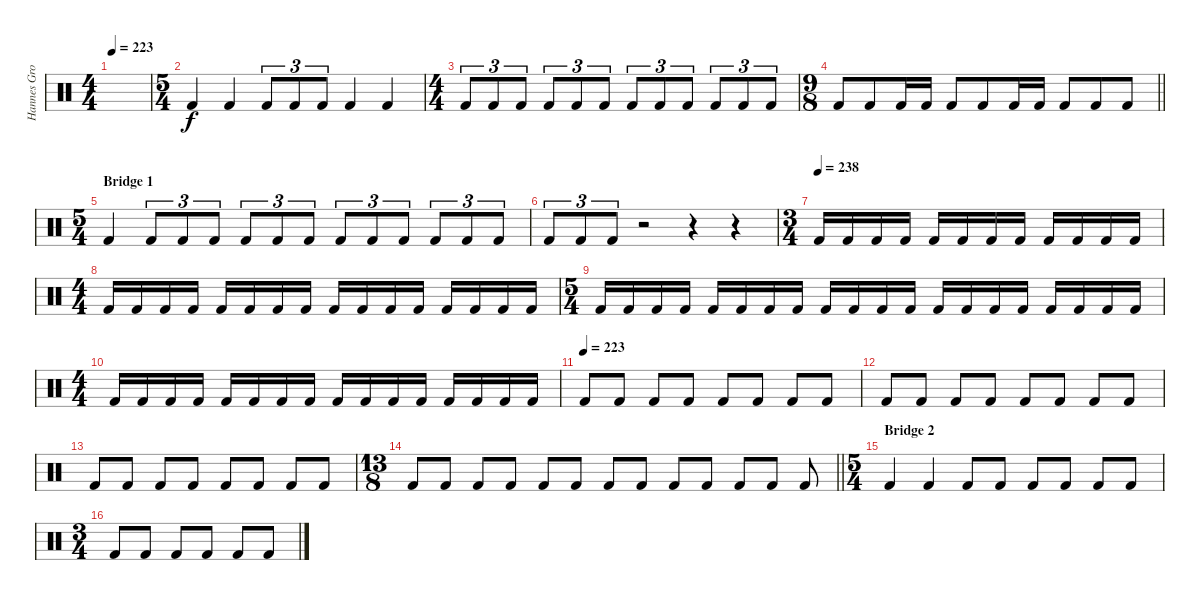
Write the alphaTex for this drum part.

\track ("Hannes Grossmann" "Hannes Gro") {instrument percussion}
\staff {score}
\articulation defaults
\ts (4 4)
\tempo 223
\clef neutral
\ks c
|
\ts (5 4)
"Kick (hit) 2".4 "Kick (hit) 2".4 "Kick (hit) 2".8{tu (3 2)} "Kick (hit) 2".8{tu (3 2)} "Kick (hit) 2".8{tu (3 2)} "Kick (hit) 2".4 "Kick (hit) 2".4 |
\ts (4 4)
"Kick (hit) 2".8{tu (3 2)} "Kick (hit) 2".8{tu (3 2)} "Kick (hit) 2".8{tu (3 2)} "Kick (hit) 2".8{tu (3 2)} "Kick (hit) 2".8{tu (3 2)} "Kick (hit) 2".8{tu (3 2)} "Kick (hit) 2".8{tu (3 2)} "Kick (hit) 2".8{tu (3 2)} "Kick (hit) 2".8{tu (3 2)} "Kick (hit) 2".8{tu (3 2)} "Kick (hit) 2".8{tu (3 2)} "Kick (hit) 2".8{tu (3 2)} |
\ts (9 8)
\barLineRight lightlight "Kick (hit) 2".8 "Kick (hit) 2".8 "Kick (hit) 2".16 "Kick (hit) 2".16 "Kick (hit) 2".8 "Kick (hit) 2".8 "Kick (hit) 2".16 "Kick (hit) 2".16 "Kick (hit) 2".8 "Kick (hit) 2".8 "Kick (hit) 2".8
|
\ts (5 4)
\section ("" "Bridge 1")
"Kick (hit) 2".4 "Kick (hit) 2".8{tu (3 2)} "Kick (hit) 2".8{tu (3 2)} "Kick (hit) 2".8{tu (3 2)} "Kick (hit) 2".8{tu (3 2)} "Kick (hit) 2".8{tu (3 2)} "Kick (hit) 2".8{tu (3 2)} "Kick (hit) 2".8{tu (3 2)} "Kick (hit) 2".8{tu (3 2)} "Kick (hit) 2".8{tu (3 2)} "Kick (hit) 2".8{tu (3 2)} "Kick (hit) 2".8{tu (3 2)} "Kick (hit) 2".8{tu (3 2)} |
"Kick (hit) 2".8{tu (3 2)} "Kick (hit) 2".8{tu (3 2)} "Kick (hit) 2".8{tu (3 2)} r.2 r.4 r.4 |
\ts (3 4)
\tempo (238)
"Kick (hit) 2".16 "Kick (hit) 2".16 "Kick (hit) 2".16 "Kick (hit) 2".16 "Kick (hit) 2".16 "Kick (hit) 2".16 "Kick (hit) 2".16 "Kick (hit) 2".16 "Kick (hit) 2".16 "Kick (hit) 2".16 "Kick (hit) 2".16 "Kick (hit) 2".16 |
\ts (4 4)
"Kick (hit) 2".16 "Kick (hit) 2".16 "Kick (hit) 2".16 "Kick (hit) 2".16 "Kick (hit) 2".16 "Kick (hit) 2".16 "Kick (hit) 2".16 "Kick (hit) 2".16 "Kick (hit) 2".16 "Kick (hit) 2".16 "Kick (hit) 2".16 "Kick (hit) 2".16 "Kick (hit) 2".16 "Kick (hit) 2".16 "Kick (hit) 2".16 "Kick (hit) 2".16 |
\ts (5 4)
"Kick (hit) 2".16 "Kick (hit) 2".16 "Kick (hit) 2".16 "Kick (hit) 2".16 "Kick (hit) 2".16 "Kick (hit) 2".16 "Kick (hit) 2".16 "Kick (hit) 2".16 "Kick (hit) 2".16 "Kick (hit) 2".16 "Kick (hit) 2".16 "Kick (hit) 2".16 "Kick (hit) 2".16 "Kick (hit) 2".16 "Kick (hit) 2".16 "Kick (hit) 2".16 "Kick (hit) 2".16 "Kick (hit) 2".16 "Kick (hit) 2".16 "Kick (hit) 2".16 |
\ts (4 4)
"Kick (hit) 2".16 "Kick (hit) 2".16 "Kick (hit) 2".16 "Kick (hit) 2".16 "Kick (hit) 2".16 "Kick (hit) 2".16 "Kick (hit) 2".16 "Kick (hit) 2".16 "Kick (hit) 2".16 "Kick (hit) 2".16 "Kick (hit) 2".16 "Kick (hit) 2".16 "Kick (hit) 2".16 "Kick (hit) 2".16 "Kick (hit) 2".16 "Kick (hit) 2".16 |
\tempo (223)
"Kick (hit) 2".8 "Kick (hit) 2".8 "Kick (hit) 2".8 "Kick (hit) 2".8 "Kick (hit) 2".8 "Kick (hit) 2".8 "Kick (hit) 2".8 "Kick (hit) 2".8 |
"Kick (hit) 2".8 "Kick (hit) 2".8 "Kick (hit) 2".8 "Kick (hit) 2".8 "Kick (hit) 2".8 "Kick (hit) 2".8 "Kick (hit) 2".8 "Kick (hit) 2".8 |
"Kick (hit) 2".8 "Kick (hit) 2".8 "Kick (hit) 2".8 "Kick (hit) 2".8 "Kick (hit) 2".8 "Kick (hit) 2".8 "Kick (hit) 2".8 "Kick (hit) 2".8 |
\ts (13 8)
\barLineRight lightlight "Kick (hit) 2".8 "Kick (hit) 2".8 "Kick (hit) 2".8 "Kick (hit) 2".8 "Kick (hit) 2".8 "Kick (hit) 2".8 "Kick (hit) 2".8 "Kick (hit) 2".8 "Kick (hit) 2".8 "Kick (hit) 2".8 "Kick (hit) 2".8 "Kick (hit) 2".8 "Kick (hit) 2".8
|
\ts (5 4)
\section ("" "Bridge 2")
"Kick (hit) 2".4 "Kick (hit) 2".4 "Kick (hit) 2".8 "Kick (hit) 2".8 "Kick (hit) 2".8 "Kick (hit) 2".8 "Kick (hit) 2".8 "Kick (hit) 2".8 |
\ts (3 4)
"Kick (hit) 2".8 "Kick (hit) 2".8 "Kick (hit) 2".8 "Kick (hit) 2".8 "Kick (hit) 2".8 "Kick (hit) 2".8
